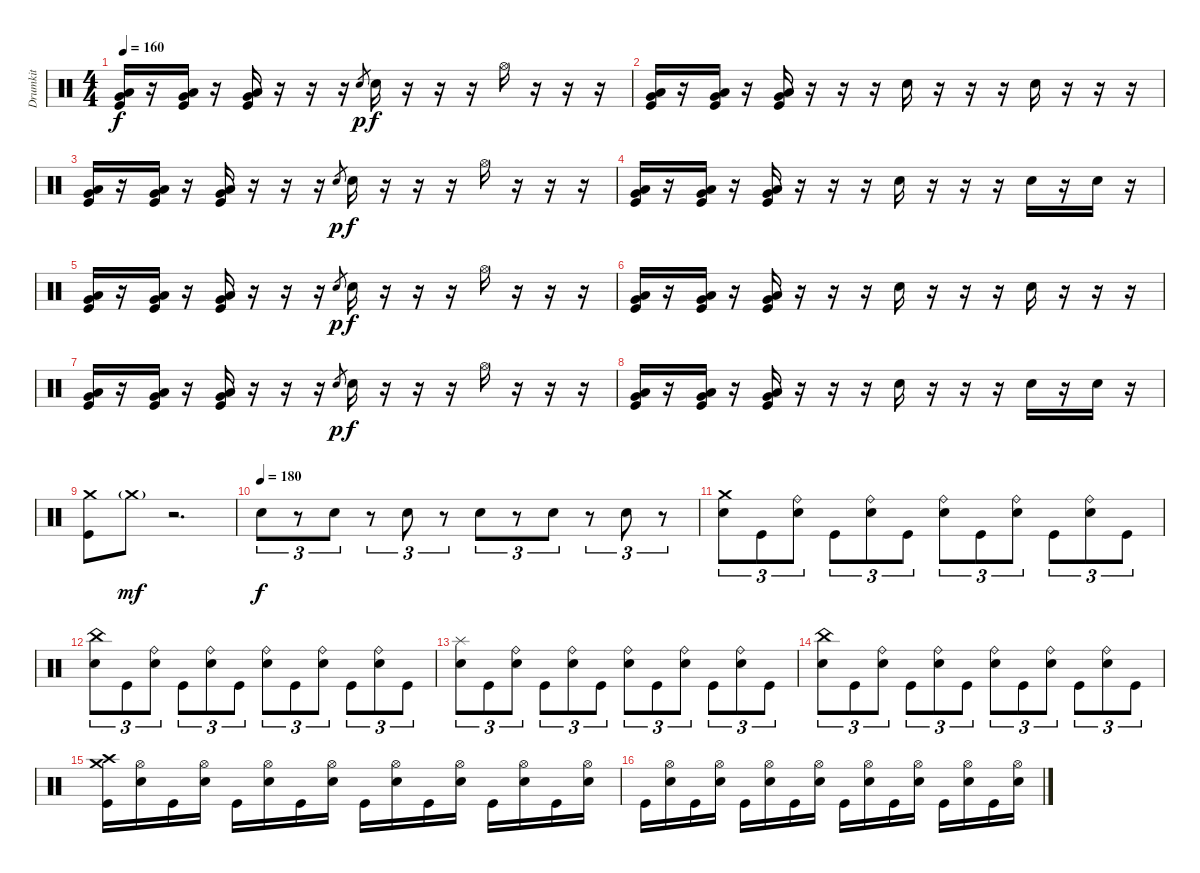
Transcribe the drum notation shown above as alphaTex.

\track ("Drumkit" "Drumkit") {instrument percussion}
\staff {score}
\articulation defaults
\ts (4 4)
\tempo 160
\clef neutral
\ks c
("Very Low Tom (hit)" "Low Floor Tom (hit)" "Kick (hit)").16{dy f} r.16 ("Very Low Tom (hit)" "Low Floor Tom (hit)" "Kick (hit)").16 r.16 ("Very Low Tom (hit)" "Low Floor Tom (hit)" "Kick (hit)").16 r.16 r.16 r.16 "Snare (hit)".8{gr dy p} "Snare (hit) 2".16{dy f} r.16 r.16 r.16 "Hi-Hat (open)".16 r.16 r.16 r.16 |
("Very Low Tom (hit)" "Low Floor Tom (hit)" "Kick (hit)").16 r.16 ("Very Low Tom (hit)" "Low Floor Tom (hit)" "Kick (hit)").16 r.16 ("Very Low Tom (hit)" "Low Floor Tom (hit)" "Kick (hit)").16 r.16 r.16 r.16 "Snare (hit) 2".16 r.16 r.16 r.16 "Snare (hit) 2".16 r.16 r.16 r.16 |
("Very Low Tom (hit)" "Low Floor Tom (hit)" "Kick (hit)").16 r.16 ("Very Low Tom (hit)" "Low Floor Tom (hit)" "Kick (hit)").16 r.16 ("Very Low Tom (hit)" "Low Floor Tom (hit)" "Kick (hit)").16 r.16 r.16 r.16 "Snare (hit)".8{gr dy p} "Snare (hit) 2".16{dy f} r.16 r.16 r.16 "Hi-Hat (open)".16 r.16 r.16 r.16 |
("Very Low Tom (hit)" "Low Floor Tom (hit)" "Kick (hit)").16 r.16 ("Very Low Tom (hit)" "Low Floor Tom (hit)" "Kick (hit)").16 r.16 ("Very Low Tom (hit)" "Low Floor Tom (hit)" "Kick (hit)").16 r.16 r.16 r.16 "Snare (hit) 2".16 r.16 r.16 r.16 "Snare (hit) 2".16 r.16 "Snare (hit) 2".16 r.16 |
("Very Low Tom (hit)" "Low Floor Tom (hit)" "Kick (hit)").16 r.16 ("Very Low Tom (hit)" "Low Floor Tom (hit)" "Kick (hit)").16 r.16 ("Very Low Tom (hit)" "Low Floor Tom (hit)" "Kick (hit)").16 r.16 r.16 r.16 "Snare (hit)".8{gr dy p} "Snare (hit) 2".16{dy f} r.16 r.16 r.16 "Hi-Hat (open)".16 r.16 r.16 r.16 |
("Very Low Tom (hit)" "Low Floor Tom (hit)" "Kick (hit)").16 r.16 ("Very Low Tom (hit)" "Low Floor Tom (hit)" "Kick (hit)").16 r.16 ("Very Low Tom (hit)" "Low Floor Tom (hit)" "Kick (hit)").16 r.16 r.16 r.16 "Snare (hit) 2".16 r.16 r.16 r.16 "Snare (hit) 2".16 r.16 r.16 r.16 |
("Very Low Tom (hit)" "Low Floor Tom (hit)" "Kick (hit)").16 r.16 ("Very Low Tom (hit)" "Low Floor Tom (hit)" "Kick (hit)").16 r.16 ("Very Low Tom (hit)" "Low Floor Tom (hit)" "Kick (hit)").16 r.16 r.16 r.16 "Snare (hit)".8{gr dy p} "Snare (hit) 2".16{dy f} r.16 r.16 r.16 "Hi-Hat (open)".16 r.16 r.16 r.16 |
("Very Low Tom (hit)" "Low Floor Tom (hit)" "Kick (hit)").16 r.16 ("Very Low Tom (hit)" "Low Floor Tom (hit)" "Kick (hit)").16 r.16 ("Very Low Tom (hit)" "Low Floor Tom (hit)" "Kick (hit)").16 r.16 r.16 r.16 "Snare (hit) 2".16 r.16 r.16 r.16 "Snare (hit) 2".16 r.16 "Snare (hit) 2".16 r.16 |
("Crash medium (hit)" "Kick (hit)").8 "Crash medium (hit)"{g}.8{dy mf} r.2{d} |
\tempo (180)
"Snare (hit) 2".8{tu (3 2) dy f} r.8{tu (3 2)} "Snare (hit) 2".8{tu (3 2)} r.8{tu (3 2)} "Snare (hit) 2".8{tu (3 2)} r.8{tu (3 2)} "Snare (hit) 2".8{tu (3 2)} r.8{tu (3 2)} "Snare (hit) 2".8{tu (3 2)} r.8{tu (3 2)} "Snare (hit) 2".8{tu (3 2)} r.8{tu (3 2)} |
("Crash medium (hit)" "Snare (hit) 2").8{tu (3 2)} "Kick (hit)".8{tu (3 2)} ("Ride (bell)" "Snare (hit) 2").8{tu (3 2)} "Kick (hit)".8{tu (3 2)} ("Ride (bell)" "Snare (hit) 2").8{tu (3 2)} "Kick (hit)".8{tu (3 2)} ("Ride (bell)" "Snare (hit) 2").8{tu (3 2)} "Kick (hit)".8{tu (3 2)} ("Ride (bell)" "Snare (hit) 2").8{tu (3 2)} "Kick (hit)".8{tu (3 2)} ("Ride (bell)" "Snare (hit) 2").8{tu (3 2)} "Kick (hit)".8{tu (3 2)} |
("China (hit)" "Snare (hit) 2").8{tu (3 2)} "Kick (hit)".8{tu (3 2)} ("Ride (bell)" "Snare (hit) 2").8{tu (3 2)} "Kick (hit)".8{tu (3 2)} ("Ride (bell)" "Snare (hit) 2").8{tu (3 2)} "Kick (hit)".8{tu (3 2)} ("Ride (bell)" "Snare (hit) 2").8{tu (3 2)} "Kick (hit)".8{tu (3 2)} ("Ride (bell)" "Snare (hit) 2").8{tu (3 2)} "Kick (hit)".8{tu (3 2)} ("Ride (bell)" "Snare (hit) 2").8{tu (3 2)} "Kick (hit)".8{tu (3 2)} |
("Splash (hit)" "Snare (hit) 2").8{tu (3 2)} "Kick (hit)".8{tu (3 2)} ("Ride (bell)" "Snare (hit) 2").8{tu (3 2)} "Kick (hit)".8{tu (3 2)} ("Ride (bell)" "Snare (hit) 2").8{tu (3 2)} "Kick (hit)".8{tu (3 2)} ("Ride (bell)" "Snare (hit) 2").8{tu (3 2)} "Kick (hit)".8{tu (3 2)} ("Ride (bell)" "Snare (hit) 2").8{tu (3 2)} "Kick (hit)".8{tu (3 2)} ("Ride (bell)" "Snare (hit) 2").8{tu (3 2)} "Kick (hit)".8{tu (3 2)} |
("China (hit)" "Snare (hit) 2").8{tu (3 2)} "Kick (hit)".8{tu (3 2)} ("Ride (bell)" "Snare (hit) 2").8{tu (3 2)} "Kick (hit)".8{tu (3 2)} ("Ride (bell)" "Snare (hit) 2").8{tu (3 2)} "Kick (hit)".8{tu (3 2)} ("Ride (bell)" "Snare (hit) 2").8{tu (3 2)} "Kick (hit)".8{tu (3 2)} ("Ride (bell)" "Snare (hit) 2").8{tu (3 2)} "Kick (hit)".8{tu (3 2)} ("Ride (bell)" "Snare (hit) 2").8{tu (3 2)} "Kick (hit)".8{tu (3 2)} |
("Crash medium (hit)" "Crash high (hit)" "Kick (hit)").16 ("Hi-Hat (open)" "Snare (hit) 2").16 "Kick (hit)".16 ("Hi-Hat (open)" "Snare (hit) 2").16 "Kick (hit)".16 ("Hi-Hat (open)" "Snare (hit) 2").16 "Kick (hit)".16 ("Hi-Hat (open)" "Snare (hit) 2").16 "Kick (hit)".16 ("Hi-Hat (open)" "Snare (hit) 2").16 "Kick (hit)".16 ("Hi-Hat (open)" "Snare (hit) 2").16 "Kick (hit)".16 ("Hi-Hat (open)" "Snare (hit) 2").16 "Kick (hit)".16 ("Hi-Hat (open)" "Snare (hit) 2").16 |
"Kick (hit)".16 ("Hi-Hat (open)" "Snare (hit) 2").16 "Kick (hit)".16 ("Hi-Hat (open)" "Snare (hit) 2").16 "Kick (hit)".16 ("Hi-Hat (open)" "Snare (hit) 2").16 "Kick (hit)".16 ("Hi-Hat (open)" "Snare (hit) 2").16 "Kick (hit)".16 ("Hi-Hat (open)" "Snare (hit) 2").16 "Kick (hit)".16 ("Hi-Hat (open)" "Snare (hit) 2").16 "Kick (hit)".16 ("Hi-Hat (open)" "Snare (hit) 2").16 "Kick (hit)".16 ("Hi-Hat (open)" "Snare (hit) 2").16
